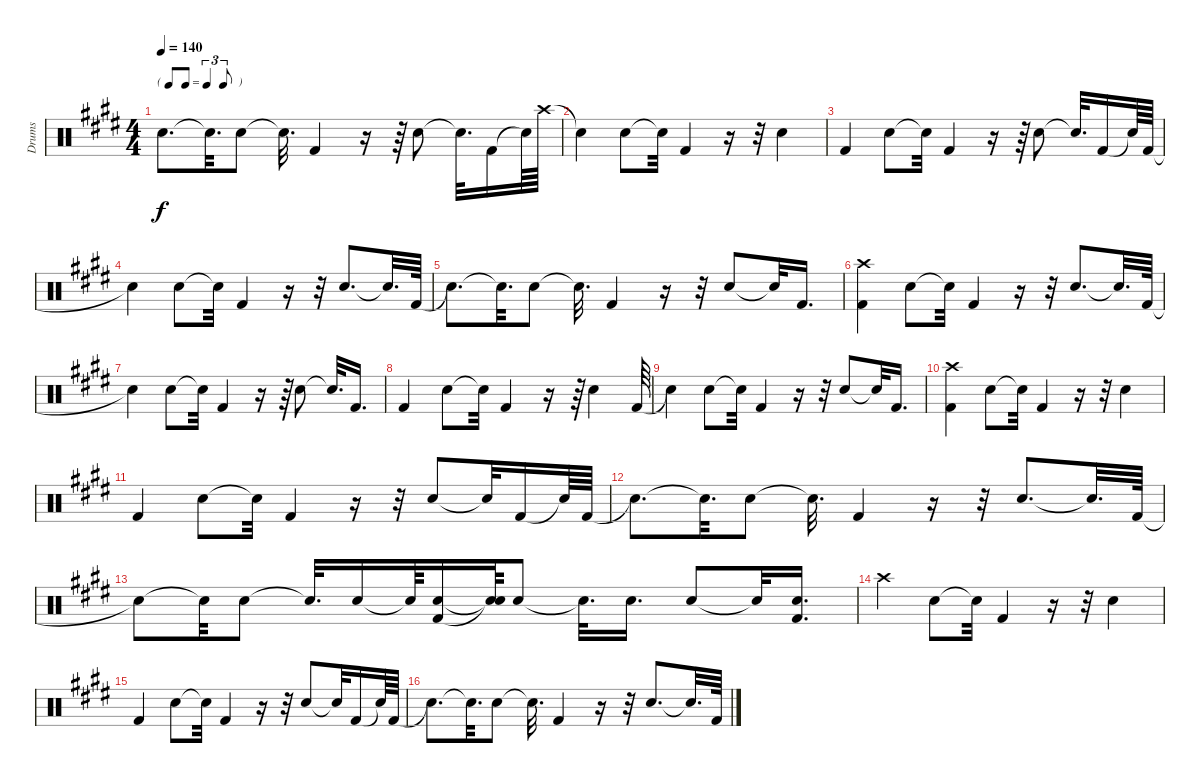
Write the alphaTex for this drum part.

\track ("Drums" "Drums") {instrument percussion}
\staff {score}
\articulation defaults
\ts (4 4)
\tf triplet8th
\tempo 140
\clef neutral
\ks e "Snare (hit)"{t}.8{d dy f} "Snare (hit)"{t}.32{d} "Snare (hit) 2".8 "Snare (hit)"{t}.32{d} "Kick (hit) 2".4
r.16 r.64 "Snare (hit) 2".8 "Snare (hit)"{t}.32{d} "Kick (hit) 2".16 "Snare (hit)"{t}.64 "Crash high (hit)".64 |
"Snare (hit)"{t}.4 "Snare (hit) 2".8 "Snare (hit)"{t}.32 "Kick (hit) 2".4 r.16 r.32 "Snare (hit) 2".4 |
"Kick (hit) 2".4 "Snare (hit) 2".8 "Snare (hit)"{t}.32 "Kick (hit) 2".4 r.16 r.64 "Snare (hit) 2".8 "Snare (hit)"{t}.32{d} "Kick (hit) 2".16 "Snare (hit)"{t}.64 "Kick (hit) 2".64 |
"Snare (hit)"{t}.4 "Snare (hit) 2".8 "Snare (hit)"{t}.32 "Kick (hit) 2".4 r.16 r.32 "Snare (hit) 2".8{d} "Snare (hit)"{t}.32{d} "Kick (hit) 2".64 |
"Snare (hit)"{t}.8{d} "Snare (hit)"{t}.32{d} "Snare (hit) 2".8 "Snare (hit)"{t}.32{d} "Kick (hit) 2".4 r.16 r.32 "Snare (hit) 2".8 "Snare (hit)"{t}.32 "Kick (hit) 2".16{d} |
("Kick (hit) 2" "Crash high (hit)").4 "Snare (hit) 2".8 "Snare (hit)"{t}.32 "Kick (hit) 2".4 r.16 r.32 "Snare (hit) 2".8{d} "Snare (hit)"{t}.32{d} "Kick (hit) 2".64 |
"Snare (hit)"{t}.4 "Snare (hit) 2".8 "Snare (hit)"{t}.32 "Kick (hit) 2".4 r.16 r.64 "Snare (hit) 2".8 "Snare (hit)"{t}.32{d} "Kick (hit) 2".16{d} |
"Kick (hit) 2".4 "Snare (hit) 2".8 "Snare (hit)"{t}.32 "Kick (hit) 2".4 r.16 r.64 "Snare (hit) 2".4 "Kick (hit) 2".64 |
"Snare (hit)"{t}.4 "Snare (hit) 2".8 "Snare (hit)"{t}.32 "Kick (hit) 2".4 r.16 r.32 "Snare (hit) 2".8 "Snare (hit)"{t}.32 "Kick (hit) 2".16{d} |
("Kick (hit) 2" "Crash high (hit)").4 "Snare (hit) 2".8 "Snare (hit)"{t}.32 "Kick (hit) 2".4 r.16 r.32 "Snare (hit) 2".4 |
"Kick (hit) 2".4 "Snare (hit) 2".8 "Snare (hit)"{t}.32 "Kick (hit) 2".4 r.16 r.32 "Snare (hit) 2".8 "Snare (hit)"{t}.32 "Kick (hit) 2".16 "Snare (hit)"{t}.64 "Kick (hit) 2".64 |
"Snare (hit)"{t}.8{d} "Snare (hit)"{t}.32{d} "Snare (hit) 2".8 "Snare (hit)"{t}.32{d} "Kick (hit) 2".4 r.16 r.32 "Snare (hit) 2".8{d} "Snare (hit)"{t}.32{d} "Kick (hit) 2".64 |
"Snare (hit)"{t}.8 "Snare (hit)"{t}.32 "Snare (hit) 2".8 "Snare (hit)"{t}.32{d} "Snare (hit) 2".16 "Snare (hit)"{t}.64 ("Kick (hit) 2" "Snare (hit) 2").16 ("Snare (hit)"{t} "Snare (hit)"{t}).64 "Snare (hit) 2".8 "Snare (hit)"{t}.32{d} "Snare (hit) 2".16{d} "Snare (hit) 2".8 "Snare (hit)"{t}.32 ("Kick (hit) 2" "Snare (hit) 2").16{d} |
"Crash high (hit)".4 "Snare (hit) 2".8 "Snare (hit)"{t}.32 "Kick (hit) 2".4 r.16 r.32 "Snare (hit) 2".4 |
"Kick (hit) 2".4 "Snare (hit) 2".8 "Snare (hit)"{t}.32 "Kick (hit) 2".4 r.16 r.32 "Snare (hit) 2".8 "Snare (hit)"{t}.32 "Kick (hit) 2".16 "Snare (hit)"{t}.64 "Kick (hit) 2".64 |
"Snare (hit)"{t}.8{d} "Snare (hit)"{t}.32{d} "Snare (hit) 2".8 "Snare (hit)"{t}.32{d} "Kick (hit) 2".4 r.16 r.32 "Snare (hit) 2".8{d} "Snare (hit)"{t}.32{d} "Kick (hit) 2".64
